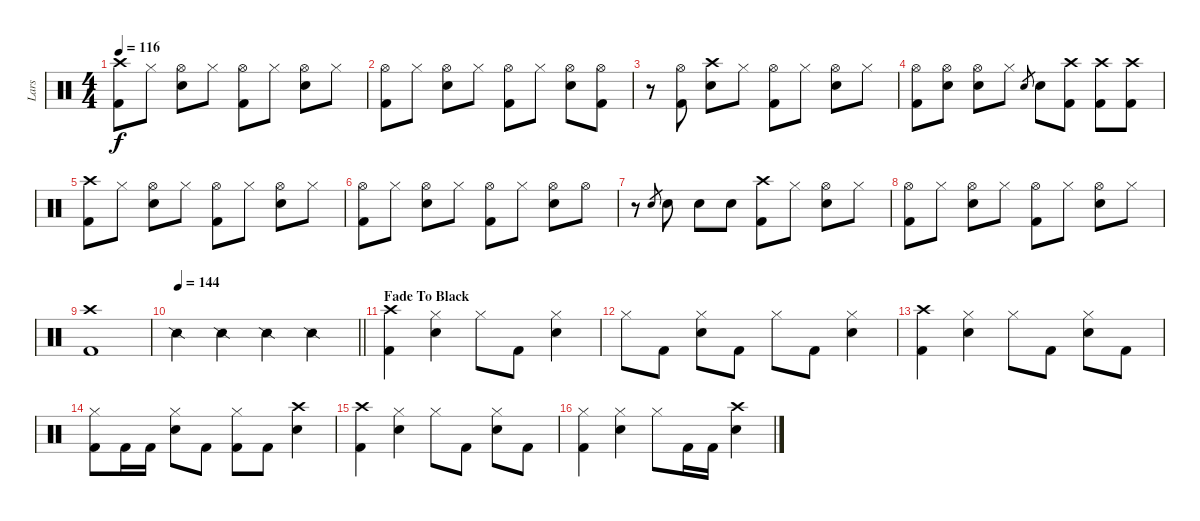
\track ("Lars" "Lars") {instrument percussion}
\staff {score}
\articulation defaults
\ts (4 4)
\tempo 116
\clef neutral
\ks c
("Crash high (hit)" "Kick (hit) 2").8{dy f} "Hi-Hat (closed)".8 ("Hi-Hat (open)" "Snare (hit) 2").8 "Hi-Hat (closed)".8 ("Hi-Hat (open)" "Kick (hit) 2").8 "Hi-Hat (closed)".8 ("Hi-Hat (open)" "Snare (hit) 2").8 "Hi-Hat (closed)".8 |
("Hi-Hat (open)" "Kick (hit) 2").8 "Hi-Hat (closed)".8 ("Hi-Hat (open)" "Snare (hit) 2").8 "Hi-Hat (closed)".8 ("Hi-Hat (open)" "Kick (hit) 2").8 "Hi-Hat (closed)".8 ("Hi-Hat (open)" "Snare (hit) 2").8 ("Hi-Hat (open)" "Kick (hit) 2").8 |
r.8 ("Hi-Hat (open)" "Kick (hit) 2").8 ("Crash high (hit)" "Snare (hit) 2").8 "Hi-Hat (closed)".8 ("Hi-Hat (open)" "Kick (hit) 2").8 "Hi-Hat (closed)".8 ("Hi-Hat (open)" "Snare (hit) 2").8 "Hi-Hat (closed)".8 |
("Hi-Hat (open)" "Kick (hit) 2").8 ("Hi-Hat (open)" "Snare (hit) 2").8 ("Hi-Hat (open)" "Snare (hit) 2").8 "Hi-Hat (closed)".8 "Snare (hit) 2".8{gr} "Snare (hit) 2".8 ("Crash high (hit)" "Kick (hit) 2").8 ("Crash high (hit)" "Kick (hit) 2").8 ("Crash high (hit)" "Kick (hit) 2").8 |
("Crash high (hit)" "Kick (hit) 2").8 "Hi-Hat (closed)".8 ("Hi-Hat (open)" "Snare (hit) 2").8 "Hi-Hat (closed)".8 ("Hi-Hat (open)" "Kick (hit) 2").8 "Hi-Hat (closed)".8 ("Hi-Hat (open)" "Snare (hit) 2").8 "Hi-Hat (closed)".8 |
("Hi-Hat (open)" "Kick (hit) 2").8 "Hi-Hat (closed)".8 ("Hi-Hat (open)" "Snare (hit) 2").8 "Hi-Hat (closed)".8 ("Hi-Hat (open)" "Kick (hit) 2").8 "Hi-Hat (closed)".8 ("Hi-Hat (open)" "Snare (hit) 2").8 "Hi-Hat (open)".8 |
r.8 "Snare (hit) 2".8{gr} "Snare (hit) 2".8 "Snare (hit) 2".8 "Snare (hit) 2".8 ("Crash high (hit)" "Kick (hit) 2").8 "Hi-Hat (closed)".8 ("Hi-Hat (open)" "Snare (hit) 2").8 "Hi-Hat (closed)".8 |
("Hi-Hat (open)" "Kick (hit) 2").8 "Hi-Hat (closed)".8 ("Hi-Hat (open)" "Snare (hit) 2").8 "Hi-Hat (closed)".8 ("Hi-Hat (open)" "Kick (hit) 2").8 "Hi-Hat (closed)".8 ("Hi-Hat (open)" "Snare (hit) 2").8 "Hi-Hat (closed)".8 |
("Crash high (hit)" "Kick (hit) 2").1 |
\tempo 144
\barLineRight lightlight "Snare (side stick) 2".4 "Snare (side stick) 2".4 "Snare (side stick) 2".4 "Snare (side stick) 2".4
|
\section ("" "Fade To Black")
("Crash high (hit)" "Kick (hit) 2").4 ("Hi-Hat (closed)" "Snare (hit) 2").4 "Hi-Hat (closed)".8 "Kick (hit) 2".8 ("Hi-Hat (closed)" "Snare (hit) 2").4 |
"Hi-Hat (closed)".8 "Kick (hit) 2".8 ("Hi-Hat (closed)" "Snare (hit) 2").8 "Kick (hit) 2".8 "Hi-Hat (closed)".8 "Kick (hit) 2".8 ("Hi-Hat (closed)" "Snare (hit) 2").4 |
("Crash high (hit)" "Kick (hit) 2").4 ("Hi-Hat (closed)" "Snare (hit) 2").4 "Hi-Hat (closed)".8 "Kick (hit) 2".8 ("Hi-Hat (closed)" "Snare (hit) 2").8 "Kick (hit) 2".8 |
("Hi-Hat (closed)" "Kick (hit) 2").8 "Kick (hit) 2".16 "Kick (hit) 2".16 ("Hi-Hat (closed)" "Snare (hit) 2").8 "Kick (hit) 2".8 ("Hi-Hat (closed)" "Kick (hit) 2").8 "Kick (hit) 2".8 ("Crash high (hit)" "Snare (hit) 2").4 |
("Crash high (hit)" "Kick (hit) 2").4 ("Hi-Hat (closed)" "Snare (hit) 2").4 "Hi-Hat (closed)".8 "Kick (hit) 2".8 ("Hi-Hat (closed)" "Snare (hit) 2").8 "Kick (hit) 2".8 |
("Hi-Hat (closed)" "Kick (hit) 2").4 ("Hi-Hat (closed)" "Snare (hit) 2").4 "Hi-Hat (closed)".8 "Kick (hit) 2".16 "Kick (hit) 2".16 ("Crash high (hit)" "Snare (hit) 2").4
